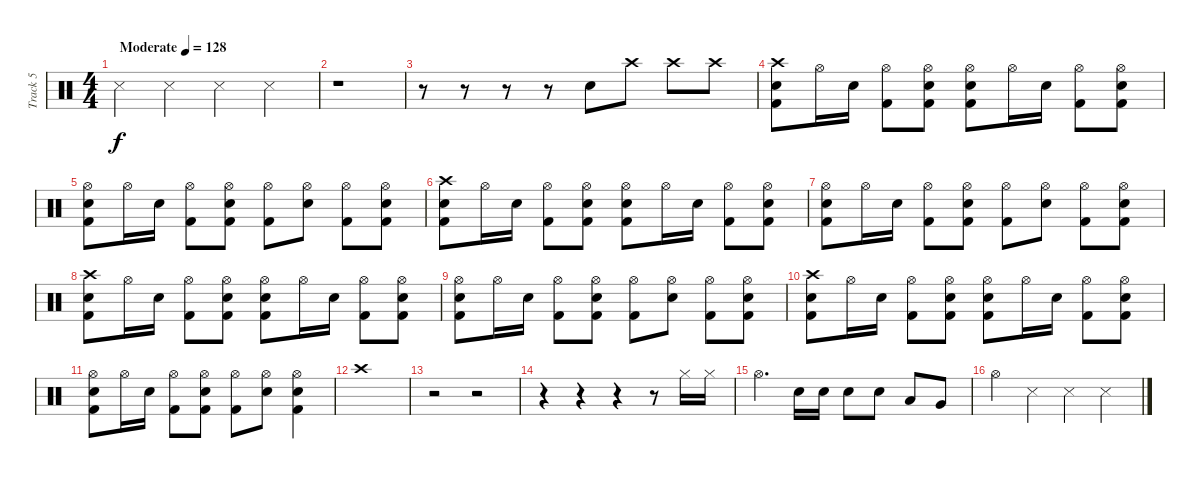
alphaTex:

\track ("Track 5" "Track 5") {instrument percussion}
\staff {score}
\articulation defaults
\ts (4 4)
\tempo (128 "Moderate")
\clef neutral
\ks c "Snare (side stick) 3".4{dy f} "Snare (side stick) 3".4 "Snare (side stick) 3".4 "Snare (side stick) 3".4
|
r.1 |
r.8 r.8 r.8 r.8 "Electric Snare (hit)".8 "Crash high (hit)".8 "Crash high (hit)".8 "Crash high (hit)".8 |
("Crash high (hit)" "Electric Snare (hit)" "Kick (hit) 2").8 "Hi-Hat (open)".16 "Electric Snare (hit)".16 ("Hi-Hat (open)" "Kick (hit) 2").8 ("Hi-Hat (open)" "Electric Snare (hit)" "Kick (hit) 2").8 ("Hi-Hat (open)" "Electric Snare (hit)" "Kick (hit) 2").8 "Hi-Hat (open)".16 "Electric Snare (hit)".16 ("Hi-Hat (open)" "Kick (hit) 2").8 ("Hi-Hat (open)" "Electric Snare (hit)" "Kick (hit) 2").8 |
("Hi-Hat (open)" "Electric Snare (hit)" "Kick (hit) 2").8 "Hi-Hat (open)".16 "Electric Snare (hit)".16 ("Hi-Hat (open)" "Kick (hit) 2").8 ("Hi-Hat (open)" "Electric Snare (hit)" "Kick (hit) 2").8 ("Hi-Hat (open)" "Kick (hit) 2").8 ("Hi-Hat (open)" "Electric Snare (hit)").8 ("Hi-Hat (open)" "Kick (hit) 2").8 ("Hi-Hat (open)" "Electric Snare (hit)" "Kick (hit) 2").8 |
("Crash high (hit)" "Electric Snare (hit)" "Kick (hit) 2").8 "Hi-Hat (open)".16 "Electric Snare (hit)".16 ("Hi-Hat (open)" "Kick (hit) 2").8 ("Hi-Hat (open)" "Electric Snare (hit)" "Kick (hit) 2").8 ("Hi-Hat (open)" "Electric Snare (hit)" "Kick (hit) 2").8 "Hi-Hat (open)".16 "Electric Snare (hit)".16 ("Hi-Hat (open)" "Kick (hit) 2").8 ("Hi-Hat (open)" "Electric Snare (hit)" "Kick (hit) 2").8 |
("Hi-Hat (open)" "Electric Snare (hit)" "Kick (hit) 2").8 "Hi-Hat (open)".16 "Electric Snare (hit)".16 ("Hi-Hat (open)" "Kick (hit) 2").8 ("Hi-Hat (open)" "Electric Snare (hit)" "Kick (hit) 2").8 ("Hi-Hat (open)" "Kick (hit) 2").8 ("Hi-Hat (open)" "Electric Snare (hit)").8 ("Hi-Hat (open)" "Kick (hit) 2").8 ("Hi-Hat (open)" "Electric Snare (hit)" "Kick (hit) 2").8 |
("Crash high (hit)" "Electric Snare (hit)" "Kick (hit) 2").8 "Hi-Hat (open)".16 "Electric Snare (hit)".16 ("Hi-Hat (open)" "Kick (hit) 2").8 ("Hi-Hat (open)" "Electric Snare (hit)" "Kick (hit) 2").8 ("Hi-Hat (open)" "Electric Snare (hit)" "Kick (hit) 2").8 "Hi-Hat (open)".16 "Electric Snare (hit)".16 ("Hi-Hat (open)" "Kick (hit) 2").8 ("Hi-Hat (open)" "Electric Snare (hit)" "Kick (hit) 2").8 |
("Hi-Hat (open)" "Electric Snare (hit)" "Kick (hit) 2").8 "Hi-Hat (open)".16 "Electric Snare (hit)".16 ("Hi-Hat (open)" "Kick (hit) 2").8 ("Hi-Hat (open)" "Electric Snare (hit)" "Kick (hit) 2").8 ("Hi-Hat (open)" "Kick (hit) 2").8 ("Hi-Hat (open)" "Electric Snare (hit)").8 ("Hi-Hat (open)" "Kick (hit) 2").8 ("Hi-Hat (open)" "Electric Snare (hit)" "Kick (hit) 2").8 |
("Crash high (hit)" "Electric Snare (hit)" "Kick (hit) 2").8 "Hi-Hat (open)".16 "Electric Snare (hit)".16 ("Hi-Hat (open)" "Kick (hit) 2").8 ("Hi-Hat (open)" "Electric Snare (hit)" "Kick (hit) 2").8 ("Hi-Hat (open)" "Electric Snare (hit)" "Kick (hit) 2").8 "Hi-Hat (open)".16 "Electric Snare (hit)".16 ("Hi-Hat (open)" "Kick (hit) 2").8 ("Hi-Hat (open)" "Electric Snare (hit)" "Kick (hit) 2").8 |
("Hi-Hat (open)" "Electric Snare (hit)" "Kick (hit) 2").8 "Hi-Hat (open)".16 "Electric Snare (hit)".16 ("Hi-Hat (open)" "Kick (hit) 2").8 ("Hi-Hat (open)" "Electric Snare (hit)" "Kick (hit) 2").8 ("Hi-Hat (open)" "Kick (hit) 2").8 ("Hi-Hat (open)" "Electric Snare (hit)").8 ("Hi-Hat (open)" "Electric Snare (hit)" "Kick (hit) 2").4 |
"Crash high (hit)".1 |
r.2 r.2 |
r.4 r.4 r.4 r.8 "Hi-Hat (closed)".16 "Hi-Hat (closed)".16 |
"Hi-Hat (open)".4{d} "Electric Snare (hit)".16 "Electric Snare (hit)".16 "Electric Snare (hit)".8 "Electric Snare (hit)".8 "Low Tom (hit)".8 "Very Low Tom (hit)".8 |
"Hi-Hat (open)".4 "Snare (side stick) 3".4 "Snare (side stick) 3".4 "Snare (side stick) 3".4
